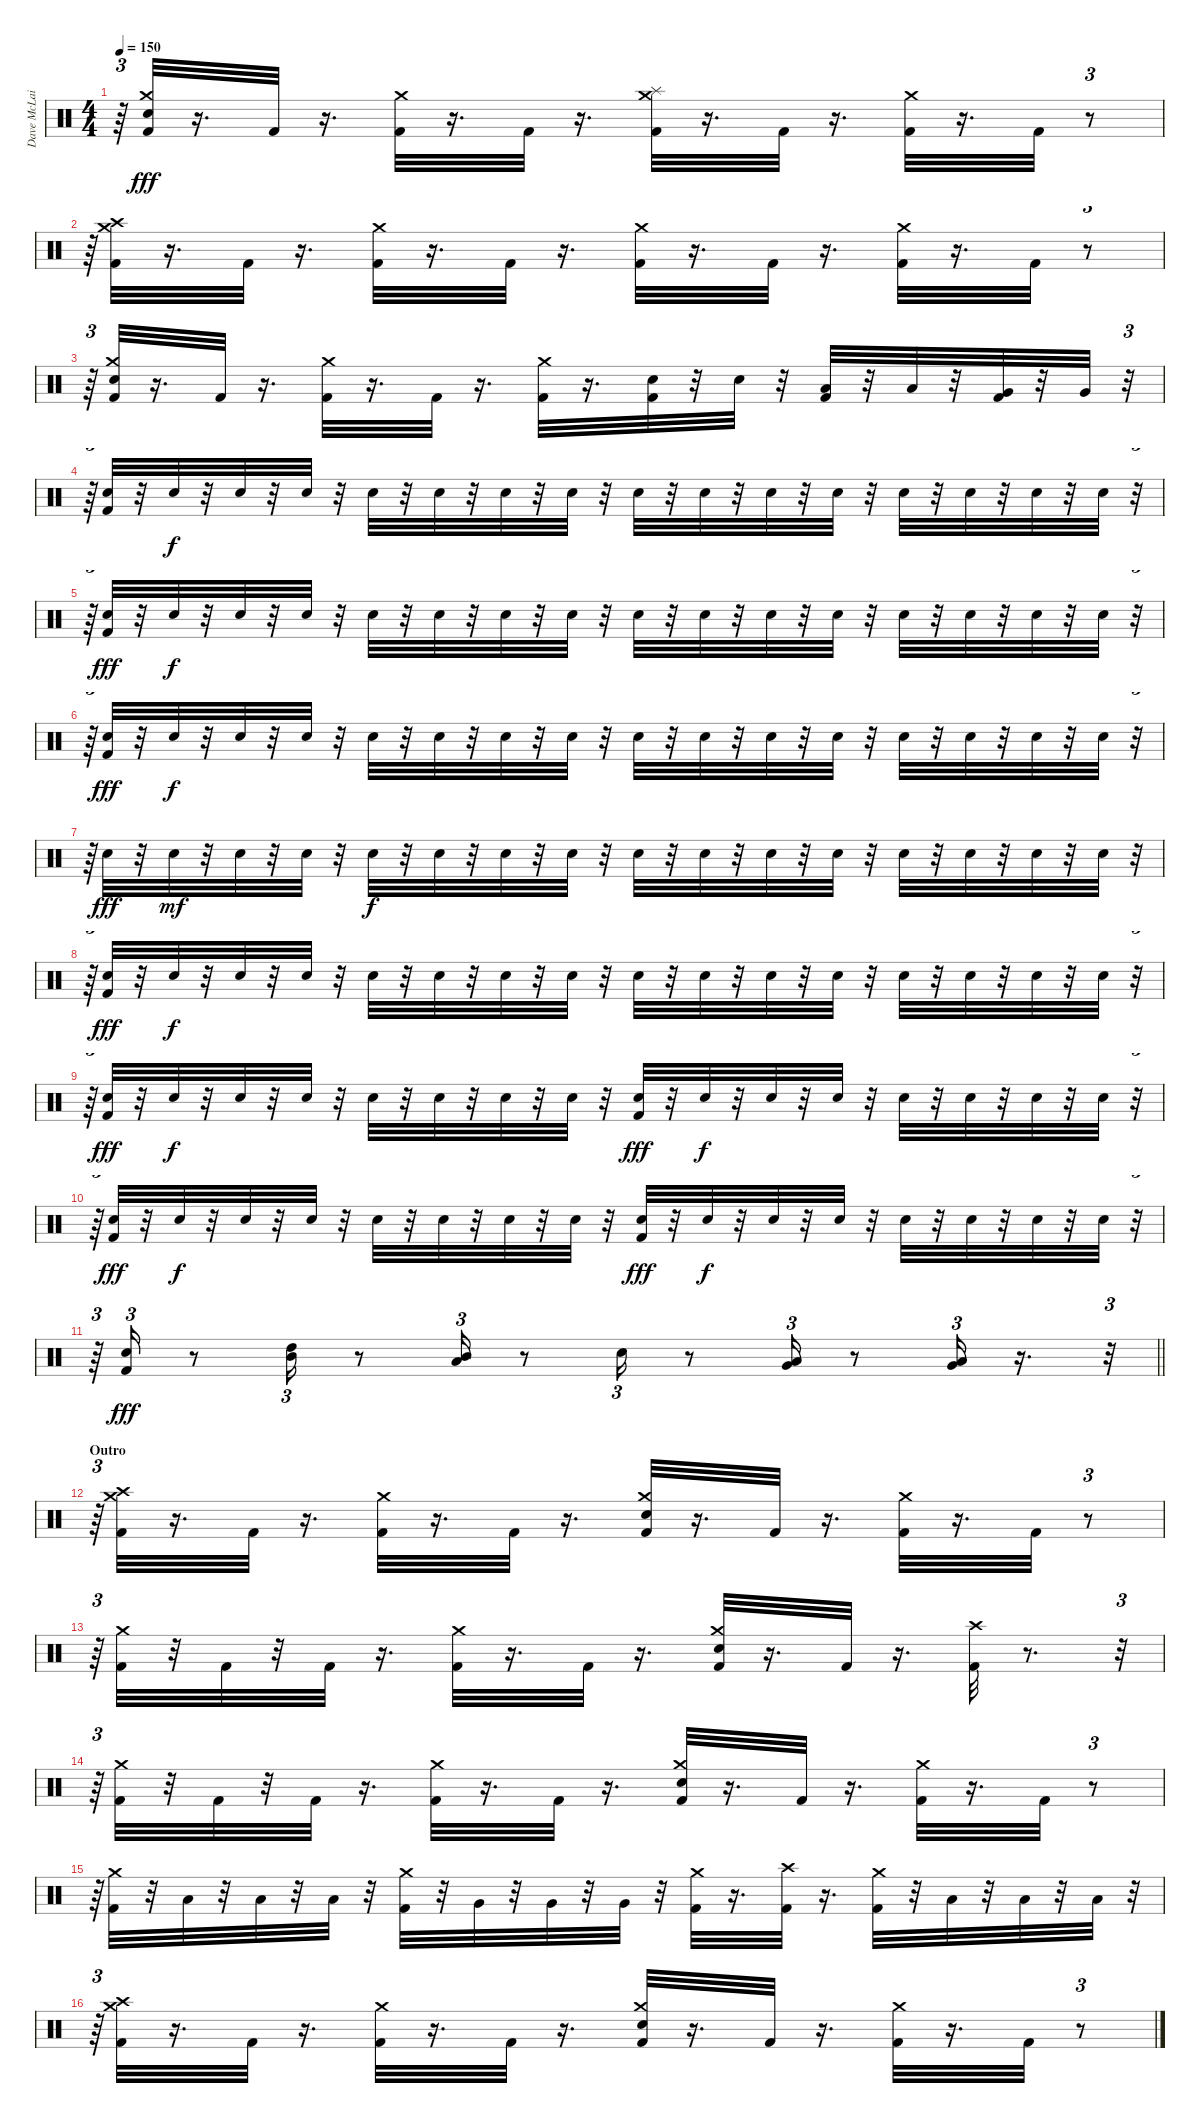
\track ("Dave McLain" "Dave McLai") {instrument percussion}
\staff {score}
\articulation defaults
\ts (4 4)
\tempo 150
\clef neutral
\ks c
r.64{tu (3 2) dy fff} ("Kick (hit) 2" "Crash medium (hit)" "Snare (hit) 2").32 r.16{d} "Kick (hit) 2".32 r.16{d} ("Crash medium (hit)" "Kick (hit) 2").32 r.16{d} "Kick (hit) 2".32 r.16{d} ("Crash medium (hit)" "Kick (hit) 2" "Splash (hit)").32 r.16{d} "Kick (hit) 2".32 r.16{d} ("Crash medium (hit)" "Kick (hit) 2").32 r.16{d} "Kick (hit) 2".32 r.8{tu (3 2)} |
r.64{tu (3 2)} ("Crash medium (hit)" "Crash high (hit)" "Kick (hit) 2").32 r.16{d} "Kick (hit) 2".32 r.16{d} ("Crash medium (hit)" "Kick (hit) 2").32 r.16{d} "Kick (hit) 2".32 r.16{d} ("Kick (hit) 2" "Crash medium (hit)").32 r.16{d} "Kick (hit) 2".32 r.16{d} ("Crash medium (hit)" "Kick (hit) 2").32 r.16{d} "Kick (hit) 2".32 r.8{tu (3 2)} |
r.64{tu (3 2)} ("Kick (hit) 2" "Crash medium (hit)" "Snare (hit) 2").32 r.16{d} "Kick (hit) 2".32 r.16{d} ("Crash medium (hit)" "Kick (hit) 2").32 r.16{d} "Kick (hit) 2".32 r.16{d} ("Kick (hit) 2" "Crash medium (hit)").32 r.16{d} ("Snare (hit) 2" "Kick (hit) 2").32 r.32 "Snare (hit) 2".32 r.32 ("Low Tom (hit)" "Kick (hit) 2").32 r.32 "Low Tom (hit)".32 r.32 ("Very Low Tom (hit)" "Kick (hit) 2").32 r.32 "Very Low Tom (hit)".32 r.32{tu (3 2)} |
r.64{tu (3 2)} ("Kick (hit) 2" "Snare (hit) 2").32 r.32 "Snare (hit) 2".32{dy f} r.32 "Snare (hit) 2".32 r.32 "Snare (hit) 2".32 r.32 "Snare (hit) 2".32 r.32 "Snare (hit) 2".32 r.32 "Snare (hit) 2".32 r.32 "Snare (hit) 2".32 r.32 "Snare (hit) 2".32 r.32 "Snare (hit) 2".32 r.32 "Snare (hit) 2".32 r.32 "Snare (hit) 2".32 r.32 "Snare (hit) 2".32 r.32 "Snare (hit) 2".32 r.32 "Snare (hit) 2".32 r.32 "Snare (hit) 2".32 r.32{tu (3 2)} |
r.64{tu (3 2)} ("Kick (hit) 2" "Snare (hit) 2").32{dy fff} r.32 "Snare (hit) 2".32{dy f} r.32 "Snare (hit) 2".32 r.32 "Snare (hit) 2".32 r.32 "Snare (hit) 2".32 r.32 "Snare (hit) 2".32 r.32 "Snare (hit) 2".32 r.32 "Snare (hit) 2".32 r.32 "Snare (hit) 2".32 r.32 "Snare (hit) 2".32 r.32 "Snare (hit) 2".32 r.32 "Snare (hit) 2".32 r.32 "Snare (hit) 2".32 r.32 "Snare (hit) 2".32 r.32 "Snare (hit) 2".32 r.32 "Snare (hit) 2".32 r.32{tu (3 2)} |
r.64{tu (3 2)} ("Kick (hit) 2" "Snare (hit) 2").32{dy fff} r.32 "Snare (hit) 2".32{dy f} r.32 "Snare (hit) 2".32 r.32 "Snare (hit) 2".32 r.32 "Snare (hit) 2".32 r.32 "Snare (hit) 2".32 r.32 "Snare (hit) 2".32 r.32 "Snare (hit) 2".32 r.32 "Snare (hit) 2".32 r.32 "Snare (hit) 2".32 r.32 "Snare (hit) 2".32 r.32 "Snare (hit) 2".32 r.32 "Snare (hit) 2".32 r.32 "Snare (hit) 2".32 r.32 "Snare (hit) 2".32 r.32 "Snare (hit) 2".32 r.32{tu (3 2)} |
r.64{tu (3 2)} "Snare (hit) 2".32{dy fff} r.32 "Snare (hit) 2".32{dy mf} r.32 "Snare (hit) 2".32 r.32 "Snare (hit) 2".32 r.32 "Snare (hit) 2".32{dy f} r.32 "Snare (hit) 2".32 r.32 "Snare (hit) 2".32 r.32 "Snare (hit) 2".32 r.32 "Snare (hit) 2".32 r.32 "Snare (hit) 2".32 r.32 "Snare (hit) 2".32 r.32 "Snare (hit) 2".32 r.32 "Snare (hit) 2".32 r.32 "Snare (hit) 2".32 r.32 "Snare (hit) 2".32 r.32 "Snare (hit) 2".32 r.32{tu (3 2)} |
r.64{tu (3 2)} ("Kick (hit) 2" "Snare (hit) 2").32{dy fff} r.32 "Snare (hit) 2".32{dy f} r.32 "Snare (hit) 2".32 r.32 "Snare (hit) 2".32 r.32 "Snare (hit) 2".32 r.32 "Snare (hit) 2".32 r.32 "Snare (hit) 2".32 r.32 "Snare (hit) 2".32 r.32 "Snare (hit) 2".32 r.32 "Snare (hit) 2".32 r.32 "Snare (hit) 2".32 r.32 "Snare (hit) 2".32 r.32 "Snare (hit) 2".32 r.32 "Snare (hit) 2".32 r.32 "Snare (hit) 2".32 r.32 "Snare (hit) 2".32 r.32{tu (3 2)} |
r.64{tu (3 2)} ("Kick (hit) 2" "Snare (hit) 2").32{dy fff} r.32 "Snare (hit) 2".32{dy f} r.32 "Snare (hit) 2".32 r.32 "Snare (hit) 2".32 r.32 "Snare (hit) 2".32 r.32 "Snare (hit) 2".32 r.32 "Snare (hit) 2".32 r.32 "Snare (hit) 2".32 r.32 ("Kick (hit) 2" "Snare (hit) 2").32{dy fff} r.32 "Snare (hit) 2".32{dy f} r.32 "Snare (hit) 2".32 r.32 "Snare (hit) 2".32 r.32 "Snare (hit) 2".32 r.32 "Snare (hit) 2".32 r.32 "Snare (hit) 2".32 r.32 "Snare (hit) 2".32 r.32{tu (3 2)} |
r.64{tu (3 2)} ("Kick (hit) 2" "Snare (hit) 2").32{dy fff} r.32 "Snare (hit) 2".32{dy f} r.32 "Snare (hit) 2".32 r.32 "Snare (hit) 2".32 r.32 "Snare (hit) 2".32 r.32 "Snare (hit) 2".32 r.32 "Snare (hit) 2".32 r.32 "Snare (hit) 2".32 r.32 ("Kick (hit) 2" "Snare (hit) 2").32{dy fff} r.32 "Snare (hit) 2".32{dy f} r.32 "Snare (hit) 2".32 r.32 "Snare (hit) 2".32 r.32 "Snare (hit) 2".32 r.32 "Snare (hit) 2".32 r.32 "Snare (hit) 2".32 r.32 "Snare (hit) 2".32 r.32{tu (3 2)} |
\barLineRight lightlight
r.64{tu (3 2)} ("Kick (hit) 2" "Snare (hit) 2").16{tu (3 2) dy fff} r.8 ("Mid Tom (hit)" "High Tom (hit)").16{tu (3 2)} r.8 ("Low Tom (hit)" "Mid Tom (hit)").16{tu (3 2)} r.8 "Snare (hit) 2".16{tu (3 2)} r.8 ("Very Low Tom (hit)" "Low Tom (hit)").16{tu (3 2)} r.8 ("Very Low Tom (hit)" "Low Floor Tom (hit)").16{tu (3 2)} r.16{d} r.32{tu (3 2)} |
\section ("" "Outro")
r.64{tu (3 2)} ("Crash medium (hit)" "Crash high (hit)" "Kick (hit) 2").32 r.16{d} "Kick (hit) 2".32 r.16{d} ("Crash medium (hit)" "Kick (hit) 2").32 r.16{d} "Kick (hit) 2".32 r.16{d} ("Snare (hit) 2" "Crash medium (hit)" "Kick (hit) 2").32 r.16{d} "Kick (hit) 2".32 r.16{d} ("Crash medium (hit)" "Kick (hit) 2").32 r.16{d} "Kick (hit) 2".32 r.8{tu (3 2)} |
r.64{tu (3 2)} ("Crash medium (hit)" "Kick (hit) 2").32 r.32 "Kick (hit) 2".32 r.32 "Kick (hit) 2".32 r.16{d} ("Crash medium (hit)" "Kick (hit) 2").32 r.16{d} "Kick (hit) 2".32 r.16{d} ("Snare (hit) 2" "Crash medium (hit)" "Kick (hit) 2").32 r.16{d} "Kick (hit) 2".32 r.16{d} ("Crash high (hit)" "Kick (hit) 2").32 r.8{d} r.32{tu (3 2)} |
r.64{tu (3 2)} ("Crash medium (hit)" "Kick (hit) 2").32 r.32 "Kick (hit) 2".32 r.32 "Kick (hit) 2".32 r.16{d} ("Kick (hit) 2" "Crash medium (hit)").32 r.16{d} "Kick (hit) 2".32 r.16{d} ("Snare (hit) 2" "Kick (hit) 2" "Crash medium (hit)").32 r.16{d} "Kick (hit) 2".32 r.16{d} ("Crash medium (hit)" "Kick (hit) 2").32 r.16{d} "Kick (hit) 2".32 r.8{tu (3 2)} |
r.64{tu (3 2)} ("Kick (hit) 2" "Crash medium (hit)").32 r.32 "Low Tom (hit)".32 r.32 "Low Tom (hit)".32 r.32 "Low Tom (hit)".32 r.32 ("Kick (hit) 2" "Crash medium (hit)").32 r.32 "Very Low Tom (hit)".32 r.32 "Very Low Tom (hit)".32 r.32 "Very Low Tom (hit)".32 r.32 ("Kick (hit) 2" "Crash medium (hit)").32 r.16{d} ("Kick (hit) 2" "Crash high (hit)").32 r.16{d} ("Kick (hit) 2" "Crash medium (hit)").32 r.32 "Low Floor Tom (hit)".32 r.32 "Low Floor Tom (hit)".32 r.32 "Low Floor Tom (hit)".32 r.32{tu (3 2)} |
r.64{tu (3 2)} ("Crash medium (hit)" "Crash high (hit)" "Kick (hit) 2").32 r.16{d} "Kick (hit) 2".32 r.16{d} ("Crash medium (hit)" "Kick (hit) 2").32 r.16{d} "Kick (hit) 2".32 r.16{d} ("Snare (hit) 2" "Crash medium (hit)" "Kick (hit) 2").32 r.16{d} "Kick (hit) 2".32 r.16{d} ("Crash medium (hit)" "Kick (hit) 2").32 r.16{d} "Kick (hit) 2".32 r.8{tu (3 2)}
